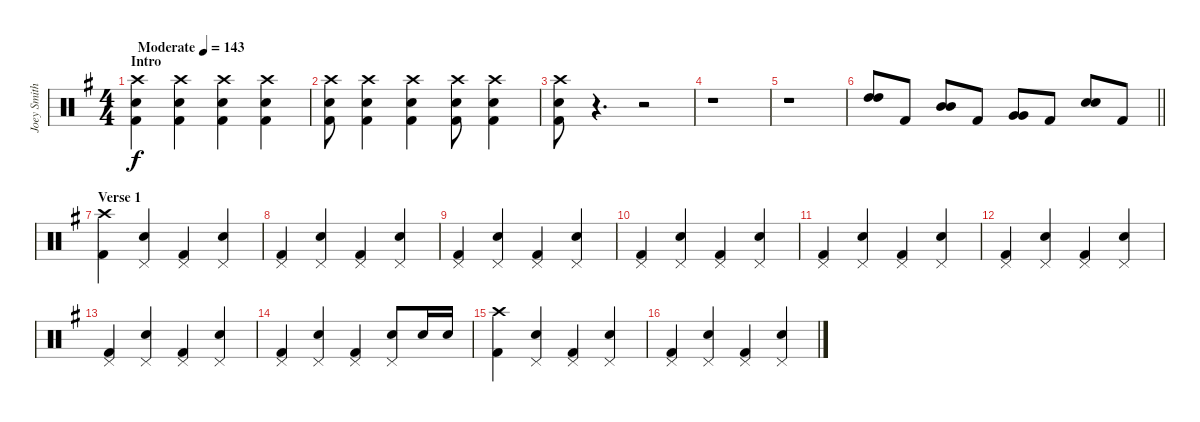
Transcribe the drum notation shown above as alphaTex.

\track ("Joey Smith" "Joey Smith") {instrument percussion}
\staff {score}
\articulation defaults
\ts (4 4)
\section ("" "Intro")
\tempo (143 "Moderate")
\clef neutral
\ks g
("Crash high (hit)" "Snare (hit) 2" "Kick (hit) 2").4{dy f} ("Crash high (hit)" "Snare (hit) 2" "Kick (hit) 2").4 ("Crash high (hit)" "Snare (hit) 2" "Kick (hit) 2").4 ("Crash high (hit)" "Snare (hit) 2" "Kick (hit) 2").4 |
("Crash high (hit)" "Snare (hit) 2" "Kick (hit) 2").8 ("Crash high (hit)" "Snare (hit) 2" "Kick (hit) 2").4 ("Crash high (hit)" "Snare (hit) 2" "Kick (hit) 2").4 ("Crash high (hit)" "Snare (hit) 2" "Kick (hit) 2").8 ("Crash high (hit)" "Snare (hit) 2" "Kick (hit) 2").4 |
("Crash high (hit)" "Snare (hit) 2" "Kick (hit) 2").8 r.4{d} r.2 |
r.1 |
r.1 |
\barLineRight lightlight
("High Tom (hit)" "High Tom (hit)").8{bd 240} "Kick (hit) 2".8 ("Mid Tom (hit)" "Mid Tom (hit)").8{bd 240} "Kick (hit) 2".8 ("Very Low Tom (hit)" "Very Low Tom (hit)").8{bd 240} "Kick (hit) 2".8 ("Snare (hit) 2" "Snare (hit) 2").8{bd 240} "Kick (hit) 2".8 |
\section ("" "Verse 1")
("Crash high (hit)" "Kick (hit) 2").4 ("Pedal Hi-Hat (hit)" "Snare (hit) 2").4 ("Pedal Hi-Hat (hit)" "Kick (hit) 2").4 ("Pedal Hi-Hat (hit)" "Snare (hit) 2").4 |
("Pedal Hi-Hat (hit)" "Kick (hit) 2").4 ("Pedal Hi-Hat (hit)" "Snare (hit) 2").4 ("Pedal Hi-Hat (hit)" "Kick (hit) 2").4 ("Pedal Hi-Hat (hit)" "Snare (hit) 2").4 |
("Pedal Hi-Hat (hit)" "Kick (hit) 2").4 ("Pedal Hi-Hat (hit)" "Snare (hit) 2").4 ("Pedal Hi-Hat (hit)" "Kick (hit) 2").4 ("Pedal Hi-Hat (hit)" "Snare (hit) 2").4 |
("Pedal Hi-Hat (hit)" "Kick (hit) 2").4 ("Pedal Hi-Hat (hit)" "Snare (hit) 2").4 ("Pedal Hi-Hat (hit)" "Kick (hit) 2").4 ("Pedal Hi-Hat (hit)" "Snare (hit) 2").4 |
("Pedal Hi-Hat (hit)" "Kick (hit) 2").4 ("Pedal Hi-Hat (hit)" "Snare (hit) 2").4 ("Pedal Hi-Hat (hit)" "Kick (hit) 2").4 ("Pedal Hi-Hat (hit)" "Snare (hit) 2").4 |
("Pedal Hi-Hat (hit)" "Kick (hit) 2").4 ("Pedal Hi-Hat (hit)" "Snare (hit) 2").4 ("Pedal Hi-Hat (hit)" "Kick (hit) 2").4 ("Pedal Hi-Hat (hit)" "Snare (hit) 2").4 |
("Pedal Hi-Hat (hit)" "Kick (hit) 2").4 ("Pedal Hi-Hat (hit)" "Snare (hit) 2").4 ("Pedal Hi-Hat (hit)" "Kick (hit) 2").4 ("Pedal Hi-Hat (hit)" "Snare (hit) 2").4 |
("Pedal Hi-Hat (hit)" "Kick (hit) 2").4 ("Pedal Hi-Hat (hit)" "Snare (hit) 2").4 ("Pedal Hi-Hat (hit)" "Kick (hit) 2").4 ("Pedal Hi-Hat (hit)" "Snare (hit) 2").8 "Snare (hit) 2".16 "Snare (hit) 2".16 |
("Crash high (hit)" "Kick (hit) 2").4 ("Pedal Hi-Hat (hit)" "Snare (hit) 2").4 ("Pedal Hi-Hat (hit)" "Kick (hit) 2").4 ("Pedal Hi-Hat (hit)" "Snare (hit) 2").4 |
("Pedal Hi-Hat (hit)" "Kick (hit) 2").4 ("Pedal Hi-Hat (hit)" "Snare (hit) 2").4 ("Pedal Hi-Hat (hit)" "Kick (hit) 2").4 ("Pedal Hi-Hat (hit)" "Snare (hit) 2").4
